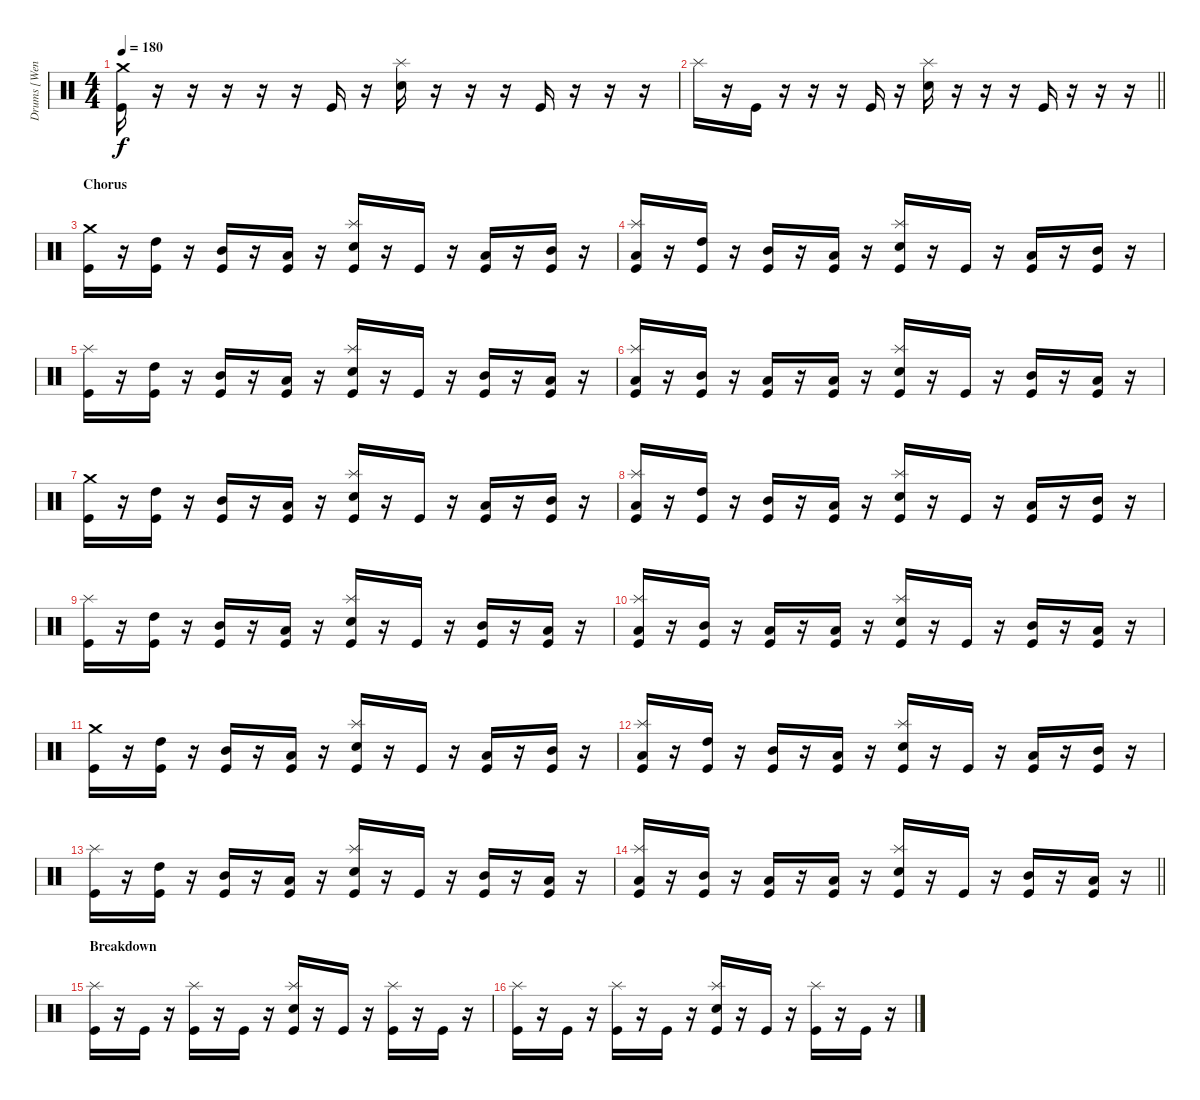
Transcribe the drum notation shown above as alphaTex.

\track ("Drums [Wengren]" "Drums [Wen") {instrument percussion}
\staff {score}
\articulation defaults
\ts (4 4)
\tempo 180
\clef neutral
\ks c
("Crash medium (hit)" "Kick (hit)").16{dy f} r.16 r.16 r.16 r.16 r.16 "Kick (hit)".16 r.16 ("Splash (hit)" "Electric Snare (hit)").16 r.16 r.16 r.16 "Kick (hit)".16 r.16 r.16 r.16 |
\barLineRight lightlight "Splash (hit)".16
r.16 "Kick (hit)".16 r.16 r.16 r.16 "Kick (hit)".16 r.16 ("Splash (hit)" "Electric Snare (hit)").16 r.16 r.16 r.16 "Kick (hit)".16 r.16 r.16 r.16 |
\section ("" "Chorus")
("Crash medium (hit)" "Kick (hit)").16 r.16 ("High Tom (hit)" "Kick (hit)").16 r.16 ("Mid Tom (hit)" "Kick (hit)").16 r.16 ("Low Tom (hit)" "Kick (hit)").16 r.16 ("Splash (hit)" "Electric Snare (hit)" "Kick (hit)").16 r.16 "Kick (hit)".16 r.16 ("Low Tom (hit)" "Kick (hit)").16 r.16 ("Mid Tom (hit)" "Kick (hit)").16 r.16 |
("Splash (hit)" "Low Floor Tom (hit)" "Kick (hit)").16 r.16 ("High Tom (hit)" "Kick (hit)").16 r.16 ("Mid Tom (hit)" "Kick (hit)").16 r.16 ("Low Tom (hit)" "Kick (hit)").16 r.16 ("Splash (hit)" "Electric Snare (hit)" "Kick (hit)").16 r.16 "Kick (hit)".16 r.16 ("Low Tom (hit)" "Kick (hit)").16 r.16 ("Mid Tom (hit)" "Kick (hit)").16 r.16 |
("Splash (hit)" "Kick (hit)").16 r.16 ("High Tom (hit)" "Kick (hit)").16 r.16 ("Mid Tom (hit)" "Kick (hit)").16 r.16 ("Low Tom (hit)" "Kick (hit)").16 r.16 ("Splash (hit)" "Electric Snare (hit)" "Kick (hit)").16 r.16 "Kick (hit)".16 r.16 ("Mid Tom (hit)" "Kick (hit)").16 r.16 ("Low Tom (hit)" "Kick (hit)").16 r.16 |
("Splash (hit)" "Low Floor Tom (hit)" "Kick (hit)").16 r.16 ("Mid Tom (hit)" "Kick (hit)").16 r.16 ("Low Tom (hit)" "Kick (hit)").16 r.16 ("Low Floor Tom (hit)" "Kick (hit)").16 r.16 ("Splash (hit)" "Electric Snare (hit)" "Kick (hit)").16 r.16 "Kick (hit)".16 r.16 ("Mid Tom (hit)" "Kick (hit)").16 r.16 ("Low Floor Tom (hit)" "Kick (hit)").16 r.16 |
("Crash medium (hit)" "Kick (hit)").16 r.16 ("High Tom (hit)" "Kick (hit)").16 r.16 ("Mid Tom (hit)" "Kick (hit)").16 r.16 ("Low Tom (hit)" "Kick (hit)").16 r.16 ("Splash (hit)" "Electric Snare (hit)" "Kick (hit)").16 r.16 "Kick (hit)".16 r.16 ("Low Tom (hit)" "Kick (hit)").16 r.16 ("Mid Tom (hit)" "Kick (hit)").16 r.16 |
("Splash (hit)" "Low Floor Tom (hit)" "Kick (hit)").16 r.16 ("High Tom (hit)" "Kick (hit)").16 r.16 ("Mid Tom (hit)" "Kick (hit)").16 r.16 ("Low Tom (hit)" "Kick (hit)").16 r.16 ("Splash (hit)" "Electric Snare (hit)" "Kick (hit)").16 r.16 "Kick (hit)".16 r.16 ("Low Tom (hit)" "Kick (hit)").16 r.16 ("Mid Tom (hit)" "Kick (hit)").16 r.16 |
("Splash (hit)" "Kick (hit)").16 r.16 ("High Tom (hit)" "Kick (hit)").16 r.16 ("Mid Tom (hit)" "Kick (hit)").16 r.16 ("Low Tom (hit)" "Kick (hit)").16 r.16 ("Splash (hit)" "Electric Snare (hit)" "Kick (hit)").16 r.16 "Kick (hit)".16 r.16 ("Mid Tom (hit)" "Kick (hit)").16 r.16 ("Low Tom (hit)" "Kick (hit)").16 r.16 |
("Splash (hit)" "Low Floor Tom (hit)" "Kick (hit)").16 r.16 ("Mid Tom (hit)" "Kick (hit)").16 r.16 ("Low Tom (hit)" "Kick (hit)").16 r.16 ("Low Floor Tom (hit)" "Kick (hit)").16 r.16 ("Splash (hit)" "Electric Snare (hit)" "Kick (hit)").16 r.16 "Kick (hit)".16 r.16 ("Mid Tom (hit)" "Kick (hit)").16 r.16 ("Low Floor Tom (hit)" "Kick (hit)").16 r.16 |
("Crash medium (hit)" "Kick (hit)").16 r.16 ("High Tom (hit)" "Kick (hit)").16 r.16 ("Mid Tom (hit)" "Kick (hit)").16 r.16 ("Low Tom (hit)" "Kick (hit)").16 r.16 ("Splash (hit)" "Electric Snare (hit)" "Kick (hit)").16 r.16 "Kick (hit)".16 r.16 ("Low Tom (hit)" "Kick (hit)").16 r.16 ("Mid Tom (hit)" "Kick (hit)").16 r.16 |
("Splash (hit)" "Low Floor Tom (hit)" "Kick (hit)").16 r.16 ("High Tom (hit)" "Kick (hit)").16 r.16 ("Mid Tom (hit)" "Kick (hit)").16 r.16 ("Low Tom (hit)" "Kick (hit)").16 r.16 ("Splash (hit)" "Electric Snare (hit)" "Kick (hit)").16 r.16 "Kick (hit)".16 r.16 ("Low Tom (hit)" "Kick (hit)").16 r.16 ("Mid Tom (hit)" "Kick (hit)").16 r.16 |
("Splash (hit)" "Kick (hit)").16 r.16 ("High Tom (hit)" "Kick (hit)").16 r.16 ("Mid Tom (hit)" "Kick (hit)").16 r.16 ("Low Tom (hit)" "Kick (hit)").16 r.16 ("Splash (hit)" "Electric Snare (hit)" "Kick (hit)").16 r.16 "Kick (hit)".16 r.16 ("Mid Tom (hit)" "Kick (hit)").16 r.16 ("Low Tom (hit)" "Kick (hit)").16 r.16 |
\barLineRight lightlight
("Splash (hit)" "Low Floor Tom (hit)" "Kick (hit)").16 r.16 ("Mid Tom (hit)" "Kick (hit)").16 r.16 ("Low Tom (hit)" "Kick (hit)").16 r.16 ("Low Floor Tom (hit)" "Kick (hit)").16 r.16 ("Splash (hit)" "Electric Snare (hit)" "Kick (hit)").16 r.16 "Kick (hit)".16 r.16 ("Mid Tom (hit)" "Kick (hit)").16 r.16 ("Low Floor Tom (hit)" "Kick (hit)").16 r.16 |
\section ("" "Breakdown")
("Splash (hit)" "Kick (hit)").16 r.16 "Kick (hit)".16 r.16 ("Splash (hit)" "Kick (hit)").16 r.16 "Kick (hit)".16 r.16 ("Splash (hit)" "Electric Snare (hit)" "Kick (hit)").16 r.16 "Kick (hit)".16 r.16 ("Splash (hit)" "Kick (hit)").16 r.16 "Kick (hit)".16 r.16 |
("Splash (hit)" "Kick (hit)").16 r.16 "Kick (hit)".16 r.16 ("Splash (hit)" "Kick (hit)").16 r.16 "Kick (hit)".16 r.16 ("Splash (hit)" "Electric Snare (hit)" "Kick (hit)").16 r.16 "Kick (hit)".16 r.16 ("Splash (hit)" "Kick (hit)").16 r.16 "Kick (hit)".16 r.16
